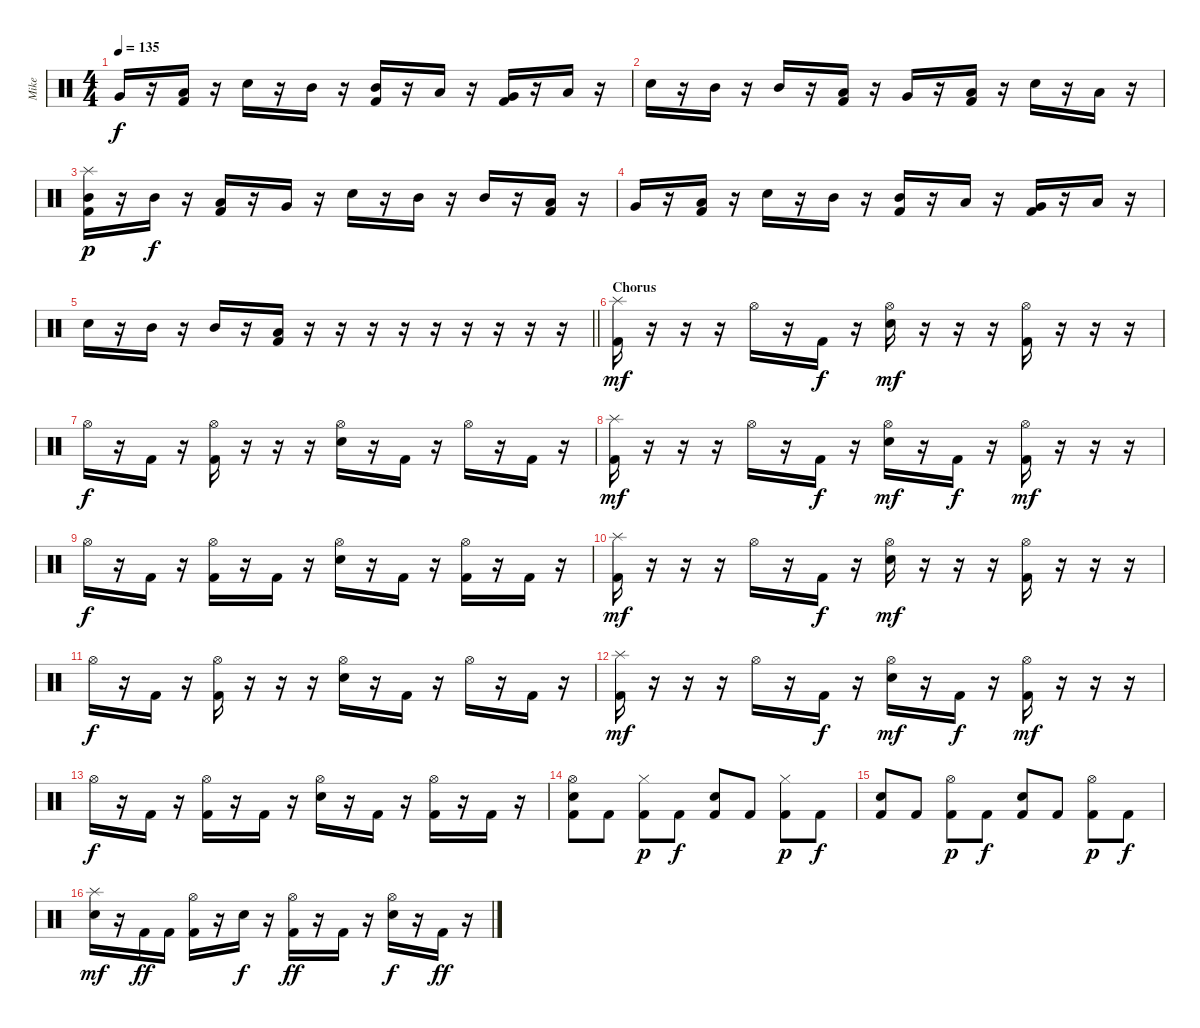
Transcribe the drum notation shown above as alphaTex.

\track ("Mike" "Mike") {instrument percussion}
\staff {score}
\articulation defaults
\ts (4 4)
\tempo 135
\clef neutral
\ks c "Very Low Tom (hit)".16{dy f}
r.16 ("Low Floor Tom (hit)" "Kick (hit) 2").16 r.16 "Snare (hit) 2".16 r.16 "Mid Tom (hit)".16 r.16 ("Mid Tom (hit)" "Kick (hit) 2").16 r.16 "Low Tom (hit)".16 r.16 ("Very Low Tom (hit)" "Kick (hit) 2").16 r.16 "Low Floor Tom (hit)".16 r.16 |
"Snare (hit) 2".16 r.16 "Mid Tom (hit)".16 r.16 "Mid Tom (hit)".16 r.16 ("Low Tom (hit)" "Kick (hit) 2").16 r.16 "Very Low Tom (hit)".16 r.16 ("Low Floor Tom (hit)" "Kick (hit) 2").16 r.16 "Snare (hit) 2".16 r.16 "Low Tom (hit)".16 r.16 |
("Splash (hit)" "Mid Tom (hit)" "Kick (hit) 2").16{dy p} r.16 "Mid Tom (hit)".16{dy f} r.16 ("Low Tom (hit)" "Kick (hit) 2").16 r.16 "Very Low Tom (hit)".16 r.16 "Snare (hit) 2".16 r.16 "Mid Tom (hit)".16 r.16 "Mid Tom (hit)".16 r.16 ("Low Tom (hit)" "Kick (hit) 2").16 r.16 |
"Very Low Tom (hit)".16 r.16 ("Low Floor Tom (hit)" "Kick (hit) 2").16 r.16 "Snare (hit) 2".16 r.16 "Mid Tom (hit)".16 r.16 ("Mid Tom (hit)" "Kick (hit) 2").16 r.16 "Low Tom (hit)".16 r.16 ("Very Low Tom (hit)" "Kick (hit) 2").16 r.16 "Low Floor Tom (hit)".16 r.16 |
\barLineRight lightlight "Snare (hit) 2".16
r.16 "Mid Tom (hit)".16 r.16 "Mid Tom (hit)".16 r.16 ("Low Tom (hit)" "Kick (hit) 2").16 r.16 r.16 r.16 r.16 r.16 r.16 r.16 r.16 r.16 |
\section ("" "Chorus")
("Splash (hit)" "Kick (hit) 2").16{dy mf} r.16 r.16 r.16 "Hi-Hat (open)".16 r.16 "Kick (hit) 2".16{dy f} r.16 ("Hi-Hat (open)" "Snare (hit) 2").16{dy mf} r.16 r.16 r.16 ("Hi-Hat (open)" "Kick (hit) 2").16 r.16 r.16 r.16 |
"Hi-Hat (open)".16{dy f} r.16 "Kick (hit) 2".16 r.16 ("Hi-Hat (open)" "Kick (hit) 2").16 r.16 r.16 r.16 ("Hi-Hat (open)" "Snare (hit) 2").16 r.16 "Kick (hit) 2".16 r.16 "Hi-Hat (open)".16 r.16 "Kick (hit) 2".16 r.16 |
("Splash (hit)" "Kick (hit) 2").16{dy mf} r.16 r.16 r.16 "Hi-Hat (open)".16 r.16 "Kick (hit) 2".16{dy f} r.16 ("Hi-Hat (open)" "Snare (hit) 2").16{dy mf} r.16 "Kick (hit) 2".16{dy f} r.16 ("Hi-Hat (open)" "Kick (hit) 2").16{dy mf} r.16 r.16 r.16 |
"Hi-Hat (open)".16{dy f} r.16 "Kick (hit) 2".16 r.16 ("Hi-Hat (open)" "Kick (hit) 2").16 r.16 "Kick (hit) 2".16 r.16 ("Hi-Hat (open)" "Snare (hit) 2").16 r.16 "Kick (hit) 2".16 r.16 ("Hi-Hat (open)" "Kick (hit) 2").16 r.16 "Kick (hit) 2".16 r.16 |
("Splash (hit)" "Kick (hit) 2").16{dy mf} r.16 r.16 r.16 "Hi-Hat (open)".16 r.16 "Kick (hit) 2".16{dy f} r.16 ("Hi-Hat (open)" "Snare (hit) 2").16{dy mf} r.16 r.16 r.16 ("Hi-Hat (open)" "Kick (hit) 2").16 r.16 r.16 r.16 |
"Hi-Hat (open)".16{dy f} r.16 "Kick (hit) 2".16 r.16 ("Hi-Hat (open)" "Kick (hit) 2").16 r.16 r.16 r.16 ("Hi-Hat (open)" "Snare (hit) 2").16 r.16 "Kick (hit) 2".16 r.16 "Hi-Hat (open)".16 r.16 "Kick (hit) 2".16 r.16 |
("Splash (hit)" "Kick (hit) 2").16{dy mf} r.16 r.16 r.16 "Hi-Hat (open)".16 r.16 "Kick (hit) 2".16{dy f} r.16 ("Hi-Hat (open)" "Snare (hit) 2").16{dy mf} r.16 "Kick (hit) 2".16{dy f} r.16 ("Hi-Hat (open)" "Kick (hit) 2").16{dy mf} r.16 r.16 r.16 |
"Hi-Hat (open)".16{dy f} r.16 "Kick (hit) 2".16 r.16 ("Hi-Hat (open)" "Kick (hit) 2").16 r.16 "Kick (hit) 2".16 r.16 ("Hi-Hat (open)" "Snare (hit) 2").16 r.16 "Kick (hit) 2".16 r.16 ("Hi-Hat (open)" "Kick (hit) 2").16 r.16 "Kick (hit) 2".16 r.16 |
("Hi-Hat (open)" "Snare (hit) 2" "Kick (hit) 2").8 "Kick (hit) 2".8 ("Hi-Hat (closed)" "Kick (hit) 2").8{dy p} "Kick (hit) 2".8{dy f} ("Snare (hit) 2" "Kick (hit) 2").8 "Kick (hit) 2".8 ("Hi-Hat (closed)" "Kick (hit) 2").8{dy p} "Kick (hit) 2".8{dy f} |
("Snare (hit) 2" "Kick (hit) 2").8 "Kick (hit) 2".8 ("Hi-Hat (open)" "Kick (hit) 2").8{dy p} "Kick (hit) 2".8{dy f} ("Snare (hit) 2" "Kick (hit) 2").8 "Kick (hit) 2".8 ("Hi-Hat (open)" "Kick (hit) 2").8{dy p} "Kick (hit) 2".8{dy f} |
("Splash (hit)" "Snare (hit) 2").16{dy mf} r.16 "Kick (hit) 2".16{dy ff} "Kick (hit) 2".16 ("Hi-Hat (open)" "Kick (hit) 2").16 r.16 "Snare (hit) 2".16{dy f} r.16 ("Hi-Hat (open)" "Kick (hit) 2").16{dy ff} r.16 "Kick (hit) 2".16 r.16 ("Hi-Hat (open)" "Snare (hit) 2").16{dy f} r.16 "Kick (hit) 2".16{dy ff} r.16
